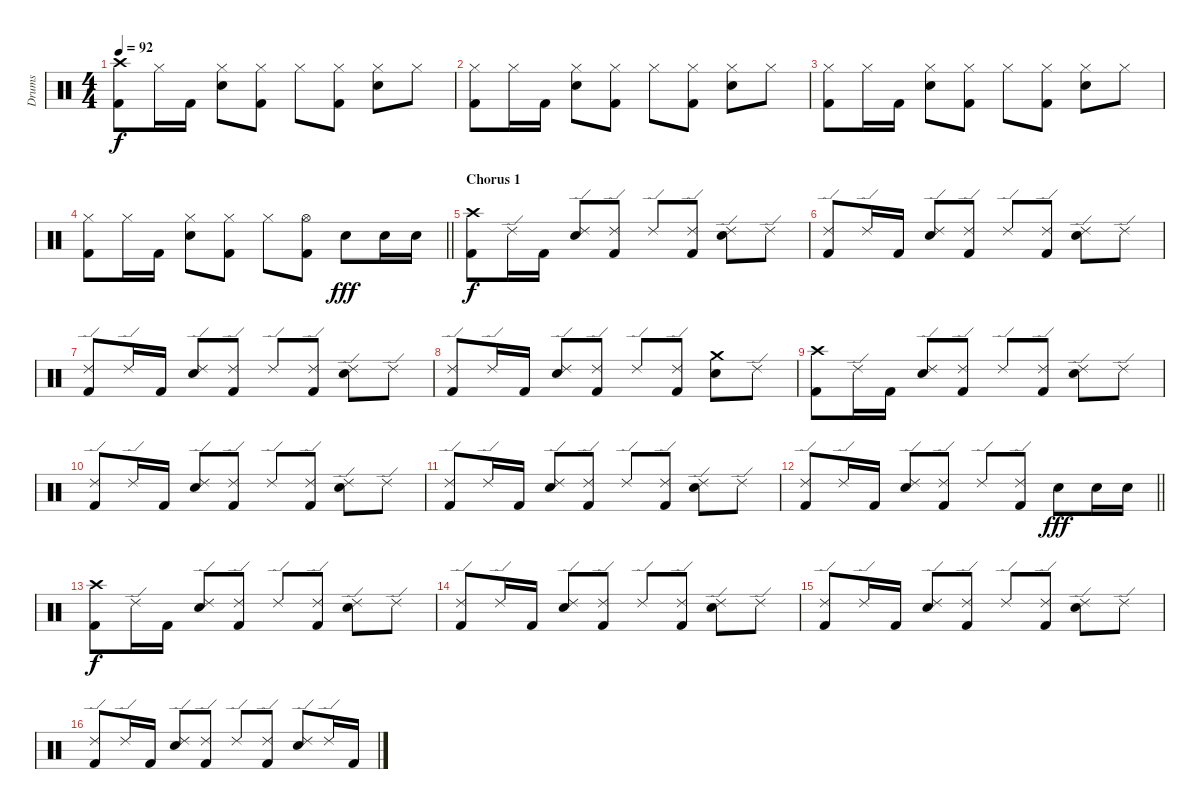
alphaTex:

\track ("Drums" "Drums") {instrument percussion}
\staff {score}
\articulation defaults
\ts (4 4)
\tempo 92
\clef neutral
\ks c
("Crash high (hit)" "Kick (hit) 2").8{dy f} "Hi-Hat (closed)".16 "Kick (hit) 2".16 ("Hi-Hat (closed)" "Electric Snare (hit)").8 ("Hi-Hat (closed)" "Kick (hit) 2").8 "Hi-Hat (closed)".8 ("Hi-Hat (closed)" "Kick (hit) 2").8 ("Hi-Hat (closed)" "Electric Snare (hit)").8 "Hi-Hat (closed)".8 |
("Hi-Hat (closed)" "Kick (hit) 2").8 "Hi-Hat (closed)".16 "Kick (hit) 2".16 ("Hi-Hat (closed)" "Electric Snare (hit)").8 ("Hi-Hat (closed)" "Kick (hit) 2").8 "Hi-Hat (closed)".8 ("Hi-Hat (closed)" "Kick (hit) 2").8 ("Hi-Hat (closed)" "Electric Snare (hit)").8 "Hi-Hat (closed)".8 |
("Hi-Hat (closed)" "Kick (hit) 2").8 "Hi-Hat (closed)".16 "Kick (hit) 2".16 ("Hi-Hat (closed)" "Electric Snare (hit)").8 ("Hi-Hat (closed)" "Kick (hit) 2").8 "Hi-Hat (closed)".8 ("Hi-Hat (closed)" "Kick (hit) 2").8 ("Hi-Hat (closed)" "Electric Snare (hit)").8 "Hi-Hat (closed)".8 |
\barLineRight lightlight
("Hi-Hat (closed)" "Kick (hit) 2").8 "Hi-Hat (closed)".16 "Kick (hit) 2".16 ("Hi-Hat (closed)" "Electric Snare (hit)").8 ("Hi-Hat (closed)" "Kick (hit) 2").8 "Hi-Hat (closed)".8 ("Hi-Hat (open)" "Kick (hit) 2").8 "Electric Snare (hit)".8{dy fff} "Electric Snare (hit)".16 "Electric Snare (hit)".16 |
\section ("" "Chorus 1")
("Crash high (hit)" "Kick (hit) 2").8{dy f} "Ride (edge) 2".16 "Kick (hit) 2".16 ("Ride (edge) 2" "Electric Snare (hit)").8 ("Ride (edge) 2" "Kick (hit) 2").8 "Ride (edge) 2".8 ("Ride (edge) 2" "Kick (hit) 2").8 ("Ride (edge) 2" "Electric Snare (hit)").8 "Ride (edge) 2".8 |
("Ride (edge) 2" "Kick (hit) 2").8 "Ride (edge) 2".16 "Kick (hit) 2".16 ("Ride (edge) 2" "Electric Snare (hit)").8 ("Ride (edge) 2" "Kick (hit) 2").8 "Ride (edge) 2".8 ("Ride (edge) 2" "Kick (hit) 2").8 ("Ride (edge) 2" "Electric Snare (hit)").8 "Ride (edge) 2".8 |
("Ride (edge) 2" "Kick (hit) 2").8 "Ride (edge) 2".16 "Kick (hit) 2".16 ("Ride (edge) 2" "Electric Snare (hit)").8 ("Ride (edge) 2" "Kick (hit) 2").8 "Ride (edge) 2".8 ("Ride (edge) 2" "Kick (hit) 2").8 ("Ride (edge) 2" "Electric Snare (hit)").8 "Ride (edge) 2".8 |
("Ride (edge) 2" "Kick (hit) 2").8 "Ride (edge) 2".16 "Kick (hit) 2".16 ("Ride (edge) 2" "Electric Snare (hit)").8 ("Ride (edge) 2" "Kick (hit) 2").8 "Ride (edge) 2".8 ("Ride (edge) 2" "Kick (hit) 2").8 ("Crash medium (hit)" "Electric Snare (hit)").8 "Ride (edge) 2".8 |
("Crash high (hit)" "Kick (hit) 2").8 "Ride (edge) 2".16 "Kick (hit) 2".16 ("Ride (edge) 2" "Electric Snare (hit)").8 ("Ride (edge) 2" "Kick (hit) 2").8 "Ride (edge) 2".8 ("Ride (edge) 2" "Kick (hit) 2").8 ("Ride (edge) 2" "Electric Snare (hit)").8 "Ride (edge) 2".8 |
("Ride (edge) 2" "Kick (hit) 2").8 "Ride (edge) 2".16 "Kick (hit) 2".16 ("Ride (edge) 2" "Electric Snare (hit)").8 ("Ride (edge) 2" "Kick (hit) 2").8 "Ride (edge) 2".8 ("Ride (edge) 2" "Kick (hit) 2").8 ("Ride (edge) 2" "Electric Snare (hit)").8 "Ride (edge) 2".8 |
("Ride (edge) 2" "Kick (hit) 2").8 "Ride (edge) 2".16 "Kick (hit) 2".16 ("Ride (edge) 2" "Electric Snare (hit)").8 ("Ride (edge) 2" "Kick (hit) 2").8 "Ride (edge) 2".8 ("Ride (edge) 2" "Kick (hit) 2").8 ("Ride (edge) 2" "Electric Snare (hit)").8 "Ride (edge) 2".8 |
\barLineRight lightlight
("Ride (edge) 2" "Kick (hit) 2").8 "Ride (edge) 2".16 "Kick (hit) 2".16 ("Ride (edge) 2" "Electric Snare (hit)").8 ("Ride (edge) 2" "Kick (hit) 2").8 "Ride (edge) 2".8 ("Ride (edge) 2" "Kick (hit) 2").8 "Electric Snare (hit)".8{dy fff} "Electric Snare (hit)".16 "Electric Snare (hit)".16 |
("Crash high (hit)" "Kick (hit) 2").8{dy f} "Ride (edge) 2".16 "Kick (hit) 2".16 ("Ride (edge) 2" "Electric Snare (hit)").8 ("Ride (edge) 2" "Kick (hit) 2").8 "Ride (edge) 2".8 ("Ride (edge) 2" "Kick (hit) 2").8 ("Ride (edge) 2" "Electric Snare (hit)").8 "Ride (edge) 2".8 |
("Ride (edge) 2" "Kick (hit) 2").8 "Ride (edge) 2".16 "Kick (hit) 2".16 ("Ride (edge) 2" "Electric Snare (hit)").8 ("Ride (edge) 2" "Kick (hit) 2").8 "Ride (edge) 2".8 ("Ride (edge) 2" "Kick (hit) 2").8 ("Ride (edge) 2" "Electric Snare (hit)").8 "Ride (edge) 2".8 |
("Ride (edge) 2" "Kick (hit) 2").8 "Ride (edge) 2".16 "Kick (hit) 2".16 ("Ride (edge) 2" "Electric Snare (hit)").8 ("Ride (edge) 2" "Kick (hit) 2").8 "Ride (edge) 2".8 ("Ride (edge) 2" "Kick (hit) 2").8 ("Ride (edge) 2" "Electric Snare (hit)").8 "Ride (edge) 2".8 |
("Ride (edge) 2" "Kick (hit) 2").8 "Ride (edge) 2".16 "Kick (hit) 2".16 ("Ride (edge) 2" "Electric Snare (hit)").8 ("Ride (edge) 2" "Kick (hit) 2").8 "Ride (edge) 2".8 ("Ride (edge) 2" "Kick (hit) 2").8 ("Ride (edge) 2" "Electric Snare (hit)").8 "Ride (edge) 2".16 "Kick (hit) 2".16
